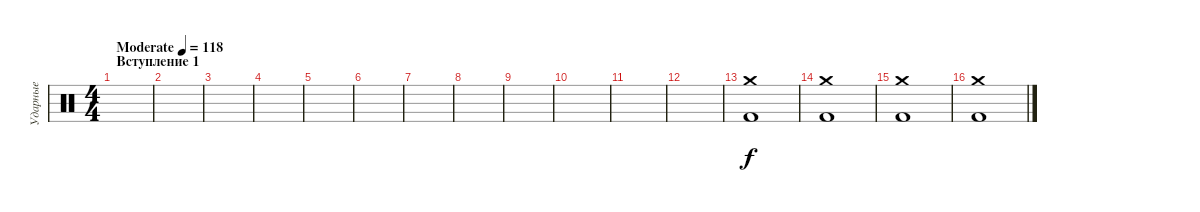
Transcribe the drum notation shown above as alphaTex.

\track ("Ударные" "Ударные") {instrument percussion}
\staff {score}
\articulation defaults
\ts (4 4)
\section ("" "Вступление 1")
\tempo (118 "Moderate")
\clef neutral
\ks c
|
|
|
|
|
|
|
|
|
|
|
|
("Crash medium (hit)" "Kick (hit) 2").1 |
("Crash medium (hit)" "Kick (hit) 2").1 |
("Crash medium (hit)" "Kick (hit) 2").1 |
("Crash medium (hit)" "Kick (hit) 2").1
